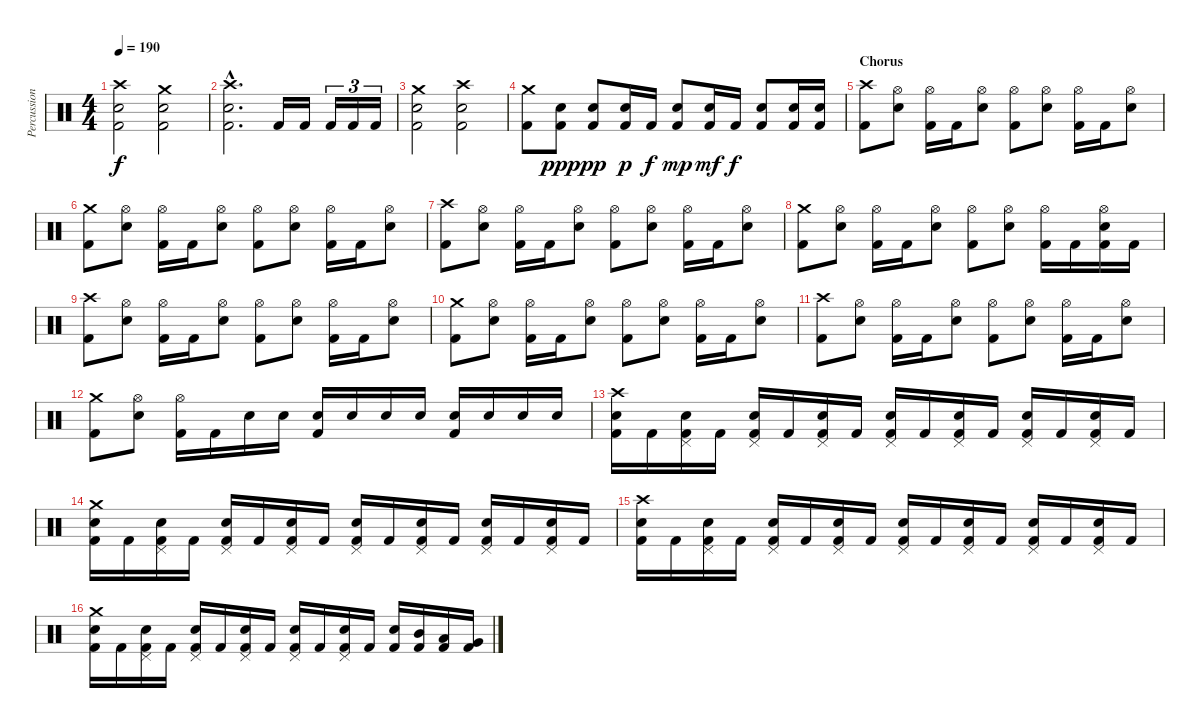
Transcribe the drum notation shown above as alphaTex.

\track ("Percussion" "Percussion") {instrument percussion}
\staff {score}
\articulation defaults
\ts (4 4)
\tempo 190
\clef neutral
\ks c
("Crash high (hit)" "Snare (hit) 2" "Kick (hit) 2").2{dy f} ("Crash medium (hit)" "Snare (hit) 2" "Kick (hit) 2").2 |
("Crash high (hit)"{hac} "Snare (hit) 2"{hac} "Kick (hit) 2"{hac}).2{d} "Kick (hit) 2".16 "Kick (hit) 2".16 "Kick (hit) 2".16{tu (3 2)} "Kick (hit) 2".16{tu (3 2)} "Kick (hit) 2".16{tu (3 2)} |
("Crash medium (hit)" "Snare (hit) 2" "Kick (hit) 2").2 ("Crash high (hit)" "Snare (hit) 2" "Kick (hit) 2").2 |
("Crash medium (hit)" "Kick (hit) 2").8 ("Snare (hit) 2" "Kick (hit) 2").8{dy ppp} ("Snare (hit) 2" "Kick (hit) 2").8{dy pp} ("Snare (hit) 2" "Kick (hit) 2").16{dy p} "Kick (hit) 2".16{dy f} ("Snare (hit) 2" "Kick (hit) 2").8{dy mp} ("Snare (hit) 2" "Kick (hit) 2").16{dy mf} "Kick (hit) 2".16{dy f} ("Snare (hit) 2" "Kick (hit) 2").8 ("Snare (hit) 2" "Kick (hit) 2").16 ("Snare (hit) 2" "Kick (hit) 2").16 |
\section ("" "Chorus")
("Crash high (hit)" "Kick (hit) 2").8 ("Hi-Hat (open)" "Snare (hit) 2").8 ("Hi-Hat (open)" "Kick (hit) 2").16 "Kick (hit) 2".16 ("Hi-Hat (open)" "Snare (hit) 2").8 ("Hi-Hat (open)" "Kick (hit) 2").8 ("Hi-Hat (open)" "Snare (hit) 2").8 ("Hi-Hat (open)" "Kick (hit) 2").16 "Kick (hit) 2".16 ("Hi-Hat (open)" "Snare (hit) 2").8 |
("Crash medium (hit)" "Kick (hit) 2").8 ("Hi-Hat (open)" "Snare (hit) 2").8 ("Hi-Hat (open)" "Kick (hit) 2").16 "Kick (hit) 2".16 ("Hi-Hat (open)" "Snare (hit) 2").8 ("Hi-Hat (open)" "Kick (hit) 2").8 ("Hi-Hat (open)" "Snare (hit) 2").8 ("Hi-Hat (open)" "Kick (hit) 2").16 "Kick (hit) 2".16 ("Hi-Hat (open)" "Snare (hit) 2").8 |
("Crash high (hit)" "Kick (hit) 2").8 ("Hi-Hat (open)" "Snare (hit) 2").8 ("Hi-Hat (open)" "Kick (hit) 2").16 "Kick (hit) 2".16 ("Hi-Hat (open)" "Snare (hit) 2").8 ("Hi-Hat (open)" "Kick (hit) 2").8 ("Hi-Hat (open)" "Snare (hit) 2").8 ("Hi-Hat (open)" "Kick (hit) 2").16 "Kick (hit) 2".16 ("Hi-Hat (open)" "Snare (hit) 2").8 |
("Crash medium (hit)" "Kick (hit) 2").8 ("Hi-Hat (open)" "Snare (hit) 2").8 ("Hi-Hat (open)" "Kick (hit) 2").16 "Kick (hit) 2".16 ("Hi-Hat (open)" "Snare (hit) 2").8 ("Hi-Hat (open)" "Kick (hit) 2").8 ("Hi-Hat (open)" "Snare (hit) 2").8 ("Hi-Hat (open)" "Kick (hit) 2").16 "Kick (hit) 2".16 ("Hi-Hat (open)" "Snare (hit) 2" "Kick (hit) 2").16 "Kick (hit) 2".16 |
("Crash high (hit)" "Kick (hit) 2").8 ("Hi-Hat (open)" "Snare (hit) 2").8 ("Hi-Hat (open)" "Kick (hit) 2").16 "Kick (hit) 2".16 ("Hi-Hat (open)" "Snare (hit) 2").8 ("Hi-Hat (open)" "Kick (hit) 2").8 ("Hi-Hat (open)" "Snare (hit) 2").8 ("Hi-Hat (open)" "Kick (hit) 2").16 "Kick (hit) 2".16 ("Hi-Hat (open)" "Snare (hit) 2").8 |
("Crash medium (hit)" "Kick (hit) 2").8 ("Hi-Hat (open)" "Snare (hit) 2").8 ("Hi-Hat (open)" "Kick (hit) 2").16 "Kick (hit) 2".16 ("Hi-Hat (open)" "Snare (hit) 2").8 ("Hi-Hat (open)" "Kick (hit) 2").8 ("Hi-Hat (open)" "Snare (hit) 2").8 ("Hi-Hat (open)" "Kick (hit) 2").16 "Kick (hit) 2".16 ("Hi-Hat (open)" "Snare (hit) 2").8 |
("Crash high (hit)" "Kick (hit) 2").8 ("Hi-Hat (open)" "Snare (hit) 2").8 ("Hi-Hat (open)" "Kick (hit) 2").16 "Kick (hit) 2".16 ("Hi-Hat (open)" "Snare (hit) 2").8 ("Hi-Hat (open)" "Kick (hit) 2").8 ("Hi-Hat (open)" "Snare (hit) 2").8 ("Hi-Hat (open)" "Kick (hit) 2").16 "Kick (hit) 2".16 ("Hi-Hat (open)" "Snare (hit) 2").8 |
("Crash medium (hit)" "Kick (hit) 2").8 ("Hi-Hat (open)" "Snare (hit) 2").8 ("Hi-Hat (open)" "Kick (hit) 2").16 "Kick (hit) 2".16 "Snare (hit) 2".16 "Snare (hit) 2".16 ("Snare (hit) 2" "Kick (hit) 2").16 "Snare (hit) 2".16 "Snare (hit) 2".16 "Snare (hit) 2".16 ("Snare (hit) 2" "Kick (hit) 2").16 "Snare (hit) 2".16 "Snare (hit) 2".16 "Snare (hit) 2".16 |
("Crash high (hit)" "Snare (hit) 2" "Kick (hit) 2").16 "Kick (hit) 2".16 ("Pedal Hi-Hat (hit)" "Snare (hit) 2" "Kick (hit) 2").16 "Kick (hit) 2".16 ("Pedal Hi-Hat (hit)" "Snare (hit) 2" "Kick (hit) 2").16 "Kick (hit) 2".16 ("Pedal Hi-Hat (hit)" "Snare (hit) 2" "Kick (hit) 2").16 "Kick (hit) 2".16 ("Pedal Hi-Hat (hit)" "Snare (hit) 2" "Kick (hit) 2").16 "Kick (hit) 2".16 ("Pedal Hi-Hat (hit)" "Snare (hit) 2" "Kick (hit) 2").16 "Kick (hit) 2".16 ("Pedal Hi-Hat (hit)" "Snare (hit) 2" "Kick (hit) 2").16 "Kick (hit) 2".16 ("Pedal Hi-Hat (hit)" "Snare (hit) 2" "Kick (hit) 2").16 "Kick (hit) 2".16 |
("Crash medium (hit)" "Snare (hit) 2" "Kick (hit) 2").16 "Kick (hit) 2".16 ("Pedal Hi-Hat (hit)" "Snare (hit) 2" "Kick (hit) 2").16 "Kick (hit) 2".16 ("Pedal Hi-Hat (hit)" "Snare (hit) 2" "Kick (hit) 2").16 "Kick (hit) 2".16 ("Pedal Hi-Hat (hit)" "Snare (hit) 2" "Kick (hit) 2").16 "Kick (hit) 2".16 ("Pedal Hi-Hat (hit)" "Snare (hit) 2" "Kick (hit) 2").16 "Kick (hit) 2".16 ("Pedal Hi-Hat (hit)" "Snare (hit) 2" "Kick (hit) 2").16 "Kick (hit) 2".16 ("Pedal Hi-Hat (hit)" "Snare (hit) 2" "Kick (hit) 2").16 "Kick (hit) 2".16 ("Pedal Hi-Hat (hit)" "Snare (hit) 2" "Kick (hit) 2").16 "Kick (hit) 2".16 |
("Crash high (hit)" "Snare (hit) 2" "Kick (hit) 2").16 "Kick (hit) 2".16 ("Pedal Hi-Hat (hit)" "Snare (hit) 2" "Kick (hit) 2").16 "Kick (hit) 2".16 ("Pedal Hi-Hat (hit)" "Snare (hit) 2" "Kick (hit) 2").16 "Kick (hit) 2".16 ("Pedal Hi-Hat (hit)" "Snare (hit) 2" "Kick (hit) 2").16 "Kick (hit) 2".16 ("Pedal Hi-Hat (hit)" "Snare (hit) 2" "Kick (hit) 2").16 "Kick (hit) 2".16 ("Pedal Hi-Hat (hit)" "Snare (hit) 2" "Kick (hit) 2").16 "Kick (hit) 2".16 ("Pedal Hi-Hat (hit)" "Snare (hit) 2" "Kick (hit) 2").16 "Kick (hit) 2".16 ("Pedal Hi-Hat (hit)" "Snare (hit) 2" "Kick (hit) 2").16 "Kick (hit) 2".16 |
("Crash medium (hit)" "Snare (hit) 2" "Kick (hit) 2").16 "Kick (hit) 2".16 ("Pedal Hi-Hat (hit)" "Snare (hit) 2" "Kick (hit) 2").16 "Kick (hit) 2".16 ("Pedal Hi-Hat (hit)" "Snare (hit) 2" "Kick (hit) 2").16 "Kick (hit) 2".16 ("Pedal Hi-Hat (hit)" "Snare (hit) 2" "Kick (hit) 2").16 "Kick (hit) 2".16 ("Pedal Hi-Hat (hit)" "Snare (hit) 2" "Kick (hit) 2").16 "Kick (hit) 2".16 ("Pedal Hi-Hat (hit)" "Snare (hit) 2" "Kick (hit) 2").16 "Kick (hit) 2".16 ("Snare (hit) 2" "Kick (hit) 2").16 ("Mid Tom (hit)" "Kick (hit) 2").16 ("Low Tom (hit)" "Kick (hit) 2").16 ("Very Low Tom (hit)" "Kick (hit) 2").16
